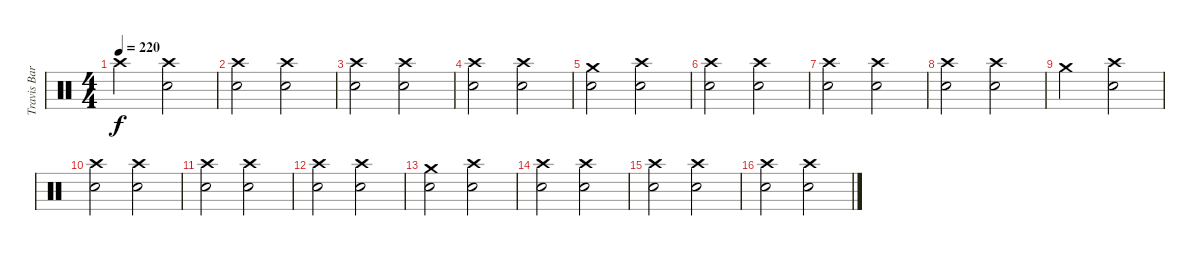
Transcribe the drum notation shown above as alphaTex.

\track ("Travis Barker" "Travis Bar") {instrument percussion}
\staff {score}
\articulation defaults
\ts (4 4)
\tempo 220
\clef neutral
\ks c "Crash high (hit)".2{dy f}
("Crash high (hit)" "Snare (hit) 2").2 |
("Crash high (hit)" "Snare (hit) 2").2 ("Crash high (hit)" "Snare (hit) 2").2 |
("Crash high (hit)" "Snare (hit) 2").2 ("Crash high (hit)" "Snare (hit) 2").2 |
("Crash high (hit)" "Snare (hit) 2").2 ("Crash high (hit)" "Snare (hit) 2").2 |
("Crash medium (hit)" "Snare (hit) 2").2 ("Crash high (hit)" "Snare (hit) 2").2 |
("Crash high (hit)" "Snare (hit) 2").2 ("Crash high (hit)" "Snare (hit) 2").2 |
("Crash high (hit)" "Snare (hit) 2").2 ("Crash high (hit)" "Snare (hit) 2").2 |
("Crash high (hit)" "Snare (hit) 2").2 ("Crash high (hit)" "Snare (hit) 2").2 |
"Crash medium (hit)".2 ("Crash high (hit)" "Snare (hit) 2").2 |
("Crash high (hit)" "Snare (hit) 2").2 ("Crash high (hit)" "Snare (hit) 2").2 |
("Crash high (hit)" "Snare (hit) 2").2 ("Crash high (hit)" "Snare (hit) 2").2 |
("Crash high (hit)" "Snare (hit) 2").2 ("Crash high (hit)" "Snare (hit) 2").2 |
("Crash medium (hit)" "Snare (hit) 2").2 ("Crash high (hit)" "Snare (hit) 2").2 |
("Crash high (hit)" "Snare (hit) 2").2 ("Crash high (hit)" "Snare (hit) 2").2 |
("Crash high (hit)" "Snare (hit) 2").2 ("Crash high (hit)" "Snare (hit) 2").2 |
("Crash high (hit)" "Snare (hit) 2").2 ("Crash high (hit)" "Snare (hit) 2").2
